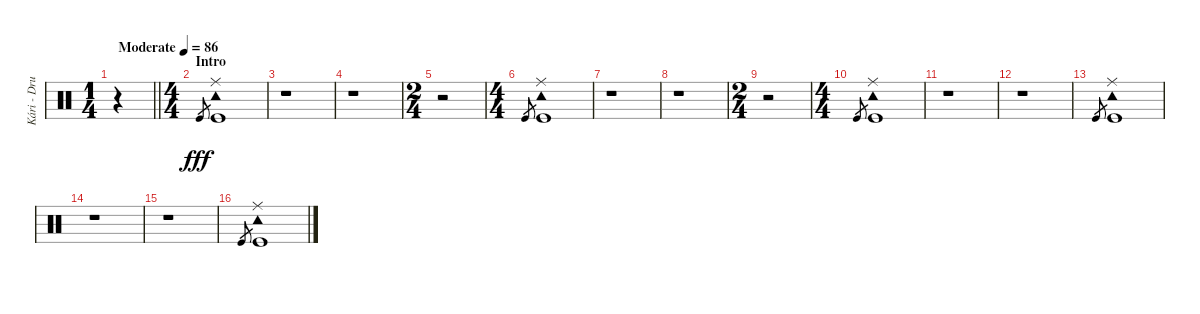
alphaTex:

\track ("Kári - Drums" "Kári - Dru") {instrument percussion}
\staff {score}
\articulation defaults
\ts (1 4)
\tempo (86 "Moderate")
\clef neutral
\barLineRight lightlight
\ks c
r.4{dy fff} |
\ts (4 4)
\section ("" "Intro")
"Kick (hit)".8{gr} ("Tambourine (hit)" "Ride (middle)" "Kick (hit)").1 |
r.1 |
r.1 |
\ts (2 4)
r.2 |
\ts (4 4)
"Kick (hit)".8{gr} ("Tambourine (hit)" "Ride (middle)" "Kick (hit)").1 |
r.1 |
r.1 |
\ts (2 4)
r.2 |
\ts (4 4)
"Kick (hit)".8{gr} ("Tambourine (hit)" "Ride (middle)" "Kick (hit)").1 |
r.1 |
r.1 |
"Kick (hit)".8{gr} ("Tambourine (hit)" "Ride (middle)" "Kick (hit)").1 |
r.1 |
r.1 |
"Kick (hit)".8{gr} ("Tambourine (hit)" "Ride (middle)" "Kick (hit)").1
